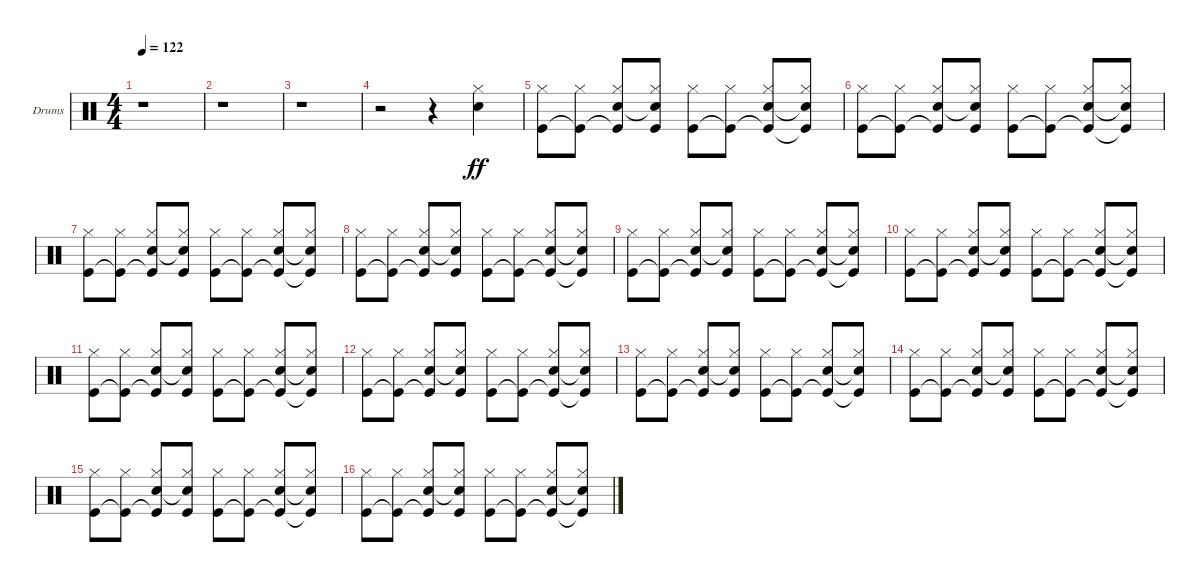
\defaultSystemsLayout 4
\bracketExtendMode groupsimilarinstruments
\firstSystemTrackNameOrientation horizontal
\otherSystemsTrackNameOrientation horizontal
\track ("Drumkit" "Drums") {instrument percussion}
\staff {score}
\articulation defaults
\ts (4 4)
\tempo 122
\clef neutral
\scale
0.474178
\ks c
r.1{dy ff} |
\scale
0.262911 r.1 |
\scale
0.262911 r.1 |
\scale
0.333333 r.2 r.4 ("Snare (hit) 2" "Hi-Hat (closed)").4 |
\scale
0.333333 ("Hi-Hat (closed)" "Kick (hit)").8 ("Hi-Hat (closed)" "Kick (hit)"{t}).8 ("Hi-Hat (closed)" "Kick (hit)"{t} "Snare (hit) 2").8 ("Hi-Hat (closed)" "Kick (hit)" "Snare (hit) 2"{t}).8 ("Hi-Hat (closed)" "Kick (hit)").8 ("Hi-Hat (closed)" "Kick (hit)"{t}).8 ("Hi-Hat (closed)" "Kick (hit)"{t} "Snare (hit) 2").8 ("Hi-Hat (closed)" "Kick (hit)"{t} "Snare (hit) 2"{t}).8 |
\scale
0.333333 ("Hi-Hat (closed)" "Kick (hit)").8 ("Hi-Hat (closed)" "Kick (hit)"{t}).8 ("Hi-Hat (closed)" "Kick (hit)"{t} "Snare (hit) 2").8 ("Hi-Hat (closed)" "Kick (hit)" "Snare (hit) 2"{t}).8 ("Hi-Hat (closed)" "Kick (hit)").8 ("Hi-Hat (closed)" "Kick (hit)"{t}).8 ("Hi-Hat (closed)" "Kick (hit)"{t} "Snare (hit) 2").8 ("Hi-Hat (closed)" "Kick (hit)"{t} "Snare (hit) 2"{t}).8 |
("Hi-Hat (closed)" "Kick (hit)").8 ("Hi-Hat (closed)" "Kick (hit)"{t}).8 ("Hi-Hat (closed)" "Kick (hit)"{t} "Snare (hit) 2").8 ("Hi-Hat (closed)" "Kick (hit)" "Snare (hit) 2"{t}).8 ("Hi-Hat (closed)" "Kick (hit)").8 ("Hi-Hat (closed)" "Kick (hit)"{t}).8 ("Hi-Hat (closed)" "Kick (hit)"{t} "Snare (hit) 2").8 ("Hi-Hat (closed)" "Kick (hit)"{t} "Snare (hit) 2"{t}).8 |
("Hi-Hat (closed)" "Kick (hit)").8 ("Hi-Hat (closed)" "Kick (hit)"{t}).8 ("Hi-Hat (closed)" "Kick (hit)"{t} "Snare (hit) 2").8 ("Hi-Hat (closed)" "Kick (hit)" "Snare (hit) 2"{t}).8 ("Hi-Hat (closed)" "Kick (hit)").8 ("Hi-Hat (closed)" "Kick (hit)"{t}).8 ("Hi-Hat (closed)" "Kick (hit)"{t} "Snare (hit) 2").8 ("Hi-Hat (closed)" "Kick (hit)"{t} "Snare (hit) 2"{t}).8 |
("Hi-Hat (closed)" "Kick (hit)").8 ("Hi-Hat (closed)" "Kick (hit)"{t}).8 ("Hi-Hat (closed)" "Kick (hit)"{t} "Snare (hit) 2").8 ("Hi-Hat (closed)" "Kick (hit)" "Snare (hit) 2"{t}).8 ("Hi-Hat (closed)" "Kick (hit)").8 ("Hi-Hat (closed)" "Kick (hit)"{t}).8 ("Hi-Hat (closed)" "Kick (hit)"{t} "Snare (hit) 2").8 ("Hi-Hat (closed)" "Kick (hit)"{t} "Snare (hit) 2"{t}).8 |
("Hi-Hat (closed)" "Kick (hit)").8 ("Hi-Hat (closed)" "Kick (hit)"{t}).8 ("Hi-Hat (closed)" "Kick (hit)"{t} "Snare (hit) 2").8 ("Hi-Hat (closed)" "Kick (hit)" "Snare (hit) 2"{t}).8 ("Hi-Hat (closed)" "Kick (hit)").8 ("Hi-Hat (closed)" "Kick (hit)"{t}).8 ("Hi-Hat (closed)" "Kick (hit)"{t} "Snare (hit) 2").8 ("Hi-Hat (closed)" "Kick (hit)"{t} "Snare (hit) 2"{t}).8 |
("Hi-Hat (closed)" "Kick (hit)").8 ("Hi-Hat (closed)" "Kick (hit)"{t}).8 ("Hi-Hat (closed)" "Kick (hit)"{t} "Snare (hit) 2").8 ("Hi-Hat (closed)" "Kick (hit)" "Snare (hit) 2"{t}).8 ("Hi-Hat (closed)" "Kick (hit)").8 ("Hi-Hat (closed)" "Kick (hit)"{t}).8 ("Hi-Hat (closed)" "Kick (hit)"{t} "Snare (hit) 2").8 ("Hi-Hat (closed)" "Kick (hit)"{t} "Snare (hit) 2"{t}).8 |
("Hi-Hat (closed)" "Kick (hit)").8 ("Hi-Hat (closed)" "Kick (hit)"{t}).8 ("Hi-Hat (closed)" "Kick (hit)"{t} "Snare (hit) 2").8 ("Hi-Hat (closed)" "Kick (hit)" "Snare (hit) 2"{t}).8 ("Hi-Hat (closed)" "Kick (hit)").8 ("Hi-Hat (closed)" "Kick (hit)"{t}).8 ("Hi-Hat (closed)" "Kick (hit)"{t} "Snare (hit) 2").8 ("Hi-Hat (closed)" "Kick (hit)"{t} "Snare (hit) 2"{t}).8 |
("Hi-Hat (closed)" "Kick (hit)").8 ("Hi-Hat (closed)" "Kick (hit)"{t}).8 ("Hi-Hat (closed)" "Kick (hit)"{t} "Snare (hit) 2").8 ("Hi-Hat (closed)" "Kick (hit)" "Snare (hit) 2"{t}).8 ("Hi-Hat (closed)" "Kick (hit)").8 ("Hi-Hat (closed)" "Kick (hit)"{t}).8 ("Hi-Hat (closed)" "Kick (hit)"{t} "Snare (hit) 2").8 ("Hi-Hat (closed)" "Kick (hit)"{t} "Snare (hit) 2"{t}).8 |
("Hi-Hat (closed)" "Kick (hit)").8 ("Hi-Hat (closed)" "Kick (hit)"{t}).8 ("Hi-Hat (closed)" "Kick (hit)"{t} "Snare (hit) 2").8 ("Hi-Hat (closed)" "Kick (hit)" "Snare (hit) 2"{t}).8 ("Hi-Hat (closed)" "Kick (hit)").8 ("Hi-Hat (closed)" "Kick (hit)"{t}).8 ("Hi-Hat (closed)" "Kick (hit)"{t} "Snare (hit) 2").8 ("Hi-Hat (closed)" "Kick (hit)"{t} "Snare (hit) 2"{t}).8 |
("Hi-Hat (closed)" "Kick (hit)").8 ("Hi-Hat (closed)" "Kick (hit)"{t}).8 ("Hi-Hat (closed)" "Kick (hit)"{t} "Snare (hit) 2").8 ("Hi-Hat (closed)" "Kick (hit)" "Snare (hit) 2"{t}).8 ("Hi-Hat (closed)" "Kick (hit)").8 ("Hi-Hat (closed)" "Kick (hit)"{t}).8 ("Hi-Hat (closed)" "Kick (hit)"{t} "Snare (hit) 2").8 ("Hi-Hat (closed)" "Kick (hit)"{t} "Snare (hit) 2"{t}).8 |
("Hi-Hat (closed)" "Kick (hit)").8 ("Hi-Hat (closed)" "Kick (hit)"{t}).8 ("Hi-Hat (closed)" "Kick (hit)"{t} "Snare (hit) 2").8 ("Hi-Hat (closed)" "Kick (hit)" "Snare (hit) 2"{t}).8 ("Hi-Hat (closed)" "Kick (hit)").8 ("Hi-Hat (closed)" "Kick (hit)"{t}).8 ("Hi-Hat (closed)" "Kick (hit)"{t} "Snare (hit) 2").8 ("Hi-Hat (closed)" "Kick (hit)"{t} "Snare (hit) 2"{t}).8
